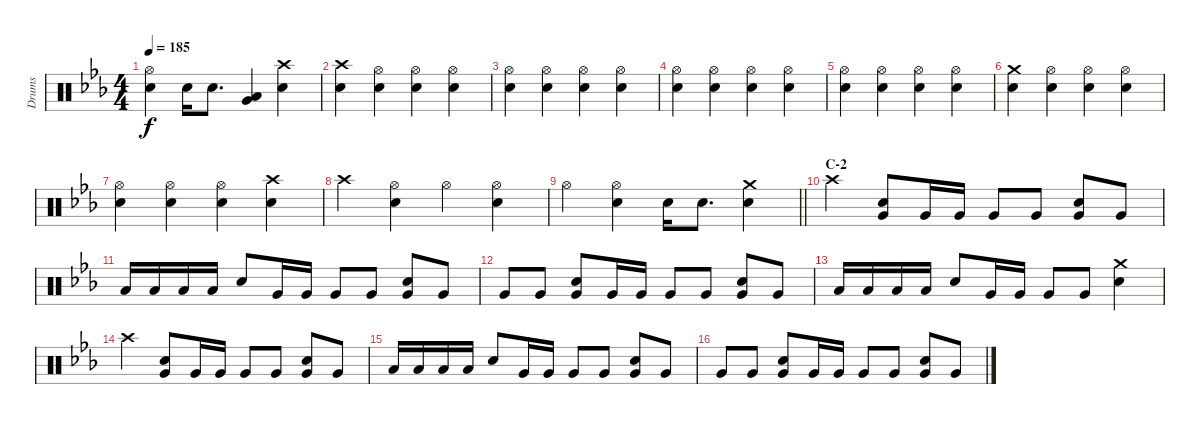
\track ("Drums" "Drums") {instrument percussion}
\staff {score}
\articulation defaults
\ts (4 4)
\tempo 185
\clef neutral
\ks eb
("Hi-Hat (open)" "Snare (hit) 2").4{dy f} "Snare (hit) 2".16 "Snare (hit) 2".8{d} ("Low Tom (hit)" "Very Low Tom (hit)").4 ("Crash high (hit)" "Snare (hit) 2").4 |
("Crash high (hit)" "Snare (hit) 2").4 ("Hi-Hat (open)" "Snare (hit) 2").4 ("Hi-Hat (open)" "Snare (hit) 2").4 ("Hi-Hat (open)" "Snare (hit) 2").4 |
("Hi-Hat (open)" "Snare (hit) 2").4 ("Hi-Hat (open)" "Snare (hit) 2").4 ("Hi-Hat (open)" "Snare (hit) 2").4 ("Hi-Hat (open)" "Snare (hit) 2").4 |
("Hi-Hat (open)" "Snare (hit) 2").4 ("Hi-Hat (open)" "Snare (hit) 2").4 ("Hi-Hat (open)" "Snare (hit) 2").4 ("Hi-Hat (open)" "Snare (hit) 2").4 |
("Hi-Hat (open)" "Snare (hit) 2").4 ("Hi-Hat (open)" "Snare (hit) 2").4 ("Hi-Hat (open)" "Snare (hit) 2").4 ("Hi-Hat (open)" "Snare (hit) 2").4 |
("Crash medium (hit)" "Snare (hit) 2").4 ("Hi-Hat (open)" "Snare (hit) 2").4 ("Hi-Hat (open)" "Snare (hit) 2").4 ("Hi-Hat (open)" "Snare (hit) 2").4 |
("Hi-Hat (open)" "Snare (hit) 2").4 ("Hi-Hat (open)" "Snare (hit) 2").4 ("Hi-Hat (open)" "Snare (hit) 2").4 ("Crash high (hit)" "Snare (hit) 2").4 |
"Crash high (hit)".4 ("Hi-Hat (open)" "Snare (hit) 2").4 "Hi-Hat (open)".4 ("Hi-Hat (open)" "Snare (hit) 2").4 |
\barLineRight lightlight "Hi-Hat (open)".4
("Hi-Hat (open)" "Snare (hit) 2").4 "Snare (hit) 2".16 "Snare (hit) 2".8{d} ("Crash medium (hit)" "Snare (hit) 2").4 |
\section ("" "C-2")
"Crash high (hit)".4 ("Very Low Tom (hit)" "Snare (hit) 2").8 "Very Low Tom (hit)".16 "Very Low Tom (hit)".16 "Very Low Tom (hit)".8 "Very Low Tom (hit)".8 ("Snare (hit) 2" "Very Low Tom (hit)").8 "Very Low Tom (hit)".8 |
"Low Tom (hit)".16 "Low Tom (hit)".16 "Low Tom (hit)".16 "Low Tom (hit)".16 "Snare (hit) 2".8 "Very Low Tom (hit)".16 "Very Low Tom (hit)".16 "Very Low Tom (hit)".8 "Very Low Tom (hit)".8 ("Snare (hit) 2" "Very Low Tom (hit)").8 "Very Low Tom (hit)".8 |
"Very Low Tom (hit)".8 "Very Low Tom (hit)".8 ("Snare (hit) 2" "Very Low Tom (hit)").8 "Very Low Tom (hit)".16 "Very Low Tom (hit)".16 "Very Low Tom (hit)".8 "Very Low Tom (hit)".8 ("Snare (hit) 2" "Very Low Tom (hit)").8 "Very Low Tom (hit)".8 |
"Low Tom (hit)".16 "Low Tom (hit)".16 "Low Tom (hit)".16 "Low Tom (hit)".16 "Snare (hit) 2".8 "Very Low Tom (hit)".16 "Very Low Tom (hit)".16 "Very Low Tom (hit)".8 "Very Low Tom (hit)".8 ("Crash medium (hit)" "Snare (hit) 2").4 |
"Crash high (hit)".4 ("Very Low Tom (hit)" "Snare (hit) 2").8 "Very Low Tom (hit)".16 "Very Low Tom (hit)".16 "Very Low Tom (hit)".8 "Very Low Tom (hit)".8 ("Snare (hit) 2" "Very Low Tom (hit)").8 "Very Low Tom (hit)".8 |
"Low Tom (hit)".16 "Low Tom (hit)".16 "Low Tom (hit)".16 "Low Tom (hit)".16 "Snare (hit) 2".8 "Very Low Tom (hit)".16 "Very Low Tom (hit)".16 "Very Low Tom (hit)".8 "Very Low Tom (hit)".8 ("Snare (hit) 2" "Very Low Tom (hit)").8 "Very Low Tom (hit)".8 |
"Very Low Tom (hit)".8 "Very Low Tom (hit)".8 ("Snare (hit) 2" "Very Low Tom (hit)").8 "Very Low Tom (hit)".16 "Very Low Tom (hit)".16 "Very Low Tom (hit)".8 "Very Low Tom (hit)".8 ("Snare (hit) 2" "Very Low Tom (hit)").8 "Very Low Tom (hit)".8
